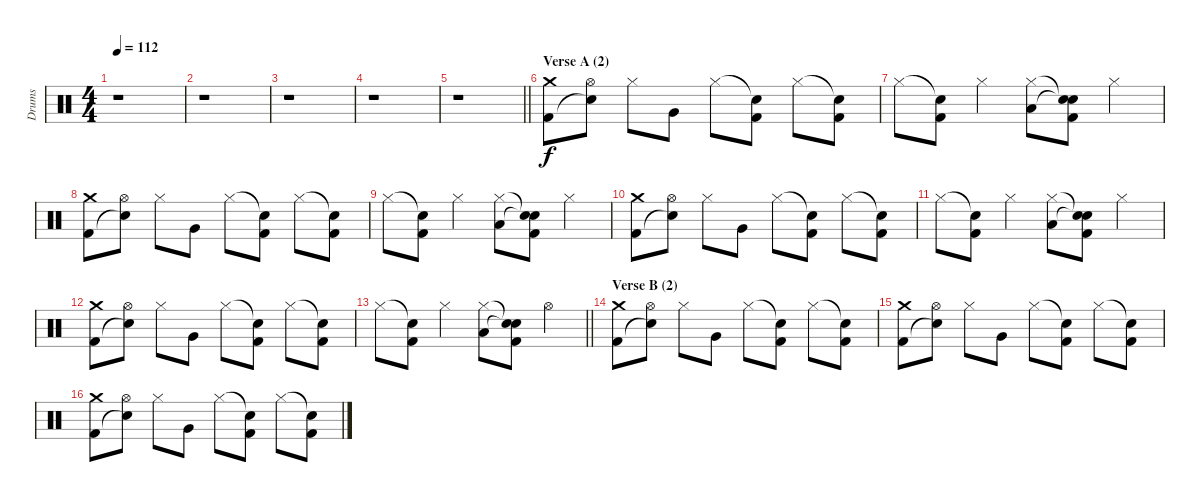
\track ("Drums" "Drums") {instrument percussion}
\staff {score}
\articulation defaults
\ts (4 4)
\tempo 112
\clef neutral
\ks aminor
r.1{dy f} |
r.1 |
r.1 |
r.1 |
\barLineRight lightlight
r.1 |
\section ("" "Verse A (2)")
("Crash medium (hit)" "Kick (hit) 2").8 ("Hi-Hat (open)" "Snare (hit)"{t}).8 "Hi-Hat (closed)".8 "Very Low Tom (hit)".8 "Hi-Hat (closed)".8 ("Snare (hit)"{t} "Kick (hit) 2").8 "Hi-Hat (closed)".8 ("Snare (hit)"{t} "Kick (hit) 2").8 |
"Hi-Hat (closed)".8 ("Snare (hit)"{t} "Kick (hit) 2").8 "Hi-Hat (closed)".4 ("Hi-Hat (closed)" "Low Floor Tom (hit)").8 ("Snare (hit)"{t} "Snare (hit)"{t} "Kick (hit) 2").8 "Hi-Hat (closed)".4 |
("Crash medium (hit)" "Kick (hit) 2").8 ("Hi-Hat (open)" "Snare (hit)"{t}).8 "Hi-Hat (closed)".8 "Very Low Tom (hit)".8 "Hi-Hat (closed)".8 ("Snare (hit)"{t} "Kick (hit) 2").8 "Hi-Hat (closed)".8 ("Snare (hit)"{t} "Kick (hit) 2").8 |
"Hi-Hat (closed)".8 ("Snare (hit)"{t} "Kick (hit) 2").8 "Hi-Hat (closed)".4 ("Hi-Hat (closed)" "Low Floor Tom (hit)").8 ("Snare (hit)"{t} "Snare (hit)"{t} "Kick (hit) 2").8 "Hi-Hat (closed)".4 |
("Crash medium (hit)" "Kick (hit) 2").8 ("Hi-Hat (open)" "Snare (hit)"{t}).8 "Hi-Hat (closed)".8 "Very Low Tom (hit)".8 "Hi-Hat (closed)".8 ("Snare (hit)"{t} "Kick (hit) 2").8 "Hi-Hat (closed)".8 ("Snare (hit)"{t} "Kick (hit) 2").8 |
"Hi-Hat (closed)".8 ("Snare (hit)"{t} "Kick (hit) 2").8 "Hi-Hat (closed)".4 ("Hi-Hat (closed)" "Low Floor Tom (hit)").8 ("Snare (hit)"{t} "Snare (hit)"{t} "Kick (hit) 2").8 "Hi-Hat (closed)".4 |
("Crash medium (hit)" "Kick (hit) 2").8 ("Hi-Hat (open)" "Snare (hit)"{t}).8 "Hi-Hat (closed)".8 "Very Low Tom (hit)".8 "Hi-Hat (closed)".8 ("Snare (hit)"{t} "Kick (hit) 2").8 "Hi-Hat (closed)".8 ("Snare (hit)"{t} "Kick (hit) 2").8 |
\barLineRight lightlight "Hi-Hat (closed)".8
("Snare (hit)"{t} "Kick (hit) 2").8 "Hi-Hat (closed)".4 ("Hi-Hat (closed)" "Low Floor Tom (hit)").8 ("Snare (hit)"{t} "Snare (hit)"{t} "Kick (hit) 2").8 "Hi-Hat (open)".4 |
\section ("" "Verse B (2)")
("Crash medium (hit)" "Kick (hit) 2").8 ("Hi-Hat (open)" "Snare (hit)"{t}).8 "Hi-Hat (closed)".8 "Very Low Tom (hit)".8 "Hi-Hat (closed)".8 ("Snare (hit)"{t} "Kick (hit) 2").8 "Hi-Hat (closed)".8 ("Snare (hit)"{t} "Kick (hit) 2").8 |
("Crash medium (hit)" "Kick (hit) 2").8 ("Hi-Hat (open)" "Snare (hit)"{t}).8 "Hi-Hat (closed)".8 "Very Low Tom (hit)".8 "Hi-Hat (closed)".8 ("Snare (hit)"{t} "Kick (hit) 2").8 "Hi-Hat (closed)".8 ("Snare (hit)"{t} "Kick (hit) 2").8 |
("Crash medium (hit)" "Kick (hit) 2").8 ("Hi-Hat (open)" "Snare (hit)"{t}).8 "Hi-Hat (closed)".8 "Very Low Tom (hit)".8 "Hi-Hat (closed)".8 ("Snare (hit)"{t} "Kick (hit) 2").8 "Hi-Hat (closed)".8 ("Snare (hit)"{t} "Kick (hit) 2").8
